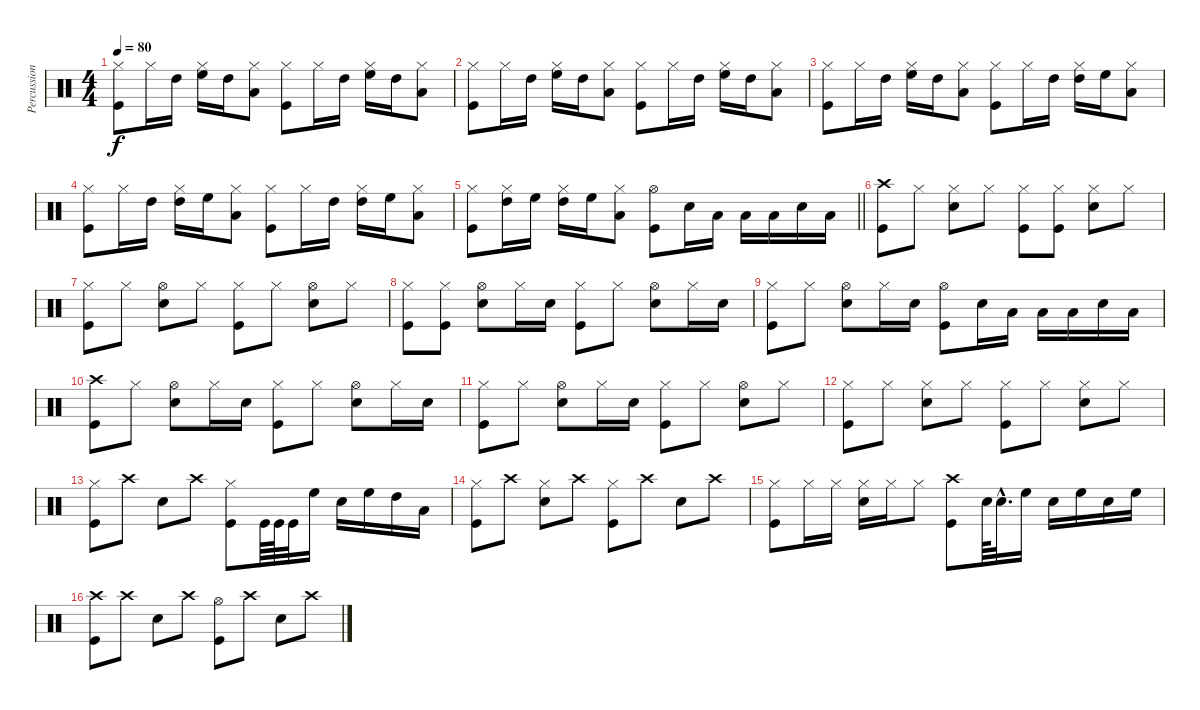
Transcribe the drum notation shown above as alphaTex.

\track ("Percussion" "Percussion") {instrument percussion}
\staff {score}
\articulation defaults
\ts (4 4)
\tempo 80
\clef neutral
\ks c
("Hi-Hat (closed)" "Kick (hit)").8{dy f} "Hi-Hat (closed)".16 "High Tom (hit)".16 ("Hi-Hat (closed)" "High Floor Tom (hit)").16 "High Tom (hit)".16 ("Hi-Hat (closed)" "Low Tom (hit)").8 ("Hi-Hat (closed)" "Kick (hit)").8 "Hi-Hat (closed)".16 "High Tom (hit)".16 ("Hi-Hat (closed)" "High Floor Tom (hit)").16 "High Tom (hit)".16 ("Hi-Hat (closed)" "Low Tom (hit)").8 |
("Hi-Hat (closed)" "Kick (hit)").8 "Hi-Hat (closed)".16 "High Tom (hit)".16 ("Hi-Hat (closed)" "High Floor Tom (hit)").16 "High Tom (hit)".16 ("Hi-Hat (closed)" "Low Tom (hit)").8 ("Hi-Hat (closed)" "Kick (hit)").8 "Hi-Hat (closed)".16 "High Tom (hit)".16 ("Hi-Hat (closed)" "High Floor Tom (hit)").16 "High Tom (hit)".16 ("Hi-Hat (closed)" "Low Tom (hit)").8 |
("Hi-Hat (closed)" "Kick (hit)").8 "Hi-Hat (closed)".16 "High Tom (hit)".16 ("Hi-Hat (closed)" "High Floor Tom (hit)").16 "High Tom (hit)".16 ("Hi-Hat (closed)" "Low Tom (hit)").8 ("Hi-Hat (closed)" "Kick (hit)").8 "Hi-Hat (closed)".16 "High Tom (hit)".16 ("Hi-Hat (closed)" "High Tom (hit)").16 "High Floor Tom (hit)".16 ("Hi-Hat (closed)" "Low Tom (hit)").8 |
("Hi-Hat (closed)" "Kick (hit)").8 "Hi-Hat (closed)".16 "High Tom (hit)".16 ("Hi-Hat (closed)" "High Tom (hit)").16 "High Floor Tom (hit)".16 ("Hi-Hat (closed)" "Low Tom (hit)").8 ("Hi-Hat (closed)" "Kick (hit)").8 "Hi-Hat (closed)".16 "High Tom (hit)".16 ("Hi-Hat (closed)" "High Tom (hit)").16 "High Floor Tom (hit)".16 ("Hi-Hat (closed)" "Low Tom (hit)").8 |
\barLineRight lightlight
("Hi-Hat (closed)" "Kick (hit)").8 ("Hi-Hat (closed)" "High Tom (hit)").16 "High Floor Tom (hit)".16 ("Hi-Hat (closed)" "High Tom (hit)").16 "High Floor Tom (hit)".16 ("Hi-Hat (closed)" "Low Tom (hit)").8 ("Hi-Hat (open)" "Kick (hit)").8 "Snare (hit) 2".16 "Low Tom (hit)".16 "Low Tom (hit)".16 "Low Tom (hit)".16 "Snare (hit) 2".16 "Low Tom (hit)".16 |
("Crash high (hit)" "Kick (hit)").8 "Hi-Hat (closed)".8 ("Hi-Hat (closed)" "Snare (hit) 2").8 "Hi-Hat (closed)".8 ("Hi-Hat (closed)" "Kick (hit)").8 ("Hi-Hat (closed)" "Kick (hit)").8 ("Hi-Hat (closed)" "Snare (hit) 2").8 "Hi-Hat (closed)".8 |
("Hi-Hat (closed)" "Kick (hit)").8 "Hi-Hat (closed)".8 ("Hi-Hat (open)" "Snare (hit) 2").8 "Hi-Hat (closed)".8 ("Hi-Hat (closed)" "Kick (hit)").8 "Hi-Hat (closed)".8 ("Hi-Hat (open)" "Snare (hit) 2").8 "Hi-Hat (closed)".8 |
("Hi-Hat (closed)" "Kick (hit)").8 ("Hi-Hat (closed)" "Kick (hit)").8 ("Hi-Hat (open)" "Snare (hit) 2").8 "Hi-Hat (closed)".16 "Snare (hit) 2".16 ("Hi-Hat (closed)" "Kick (hit)").8 "Hi-Hat (closed)".8 ("Hi-Hat (open)" "Snare (hit) 2").8 "Hi-Hat (closed)".16 "Snare (hit) 2".16 |
("Hi-Hat (closed)" "Kick (hit)").8 "Hi-Hat (closed)".8 ("Hi-Hat (open)" "Snare (hit) 2").8 "Hi-Hat (closed)".16 "Snare (hit) 2".16 ("Hi-Hat (open)" "Kick (hit)").8 "Snare (hit) 2".16 "Low Tom (hit)".16 "Low Tom (hit)".16 "Low Tom (hit)".16 "Snare (hit) 2".16 "Low Tom (hit)".16 |
("Crash high (hit)" "Kick (hit)").8 "Hi-Hat (closed)".8 ("Hi-Hat (open)" "Snare (hit) 2").8 "Hi-Hat (closed)".16 "Snare (hit) 2".16 ("Hi-Hat (closed)" "Kick (hit)").8 "Hi-Hat (closed)".8 ("Hi-Hat (open)" "Snare (hit) 2").8 "Hi-Hat (closed)".16 "Snare (hit) 2".16 |
("Hi-Hat (closed)" "Kick (hit)").8 "Hi-Hat (closed)".8 ("Hi-Hat (open)" "Snare (hit) 2").8 "Hi-Hat (closed)".16 "Snare (hit) 2".16 ("Hi-Hat (closed)" "Kick (hit)").8 "Hi-Hat (closed)".8 ("Hi-Hat (open)" "Snare (hit) 2").8 "Hi-Hat (closed)".8 |
("Hi-Hat (closed)" "Kick (hit)").8 "Hi-Hat (closed)".8 ("Hi-Hat (closed)" "Snare (hit) 2").8 "Hi-Hat (closed)".8 ("Hi-Hat (closed)" "Kick (hit)").8 "Hi-Hat (closed)".8 ("Hi-Hat (closed)" "Snare (hit) 2").8 "Hi-Hat (closed)".8 |
("Hi-Hat (closed)" "Kick (hit)").8 "Crash high (hit)".8 "Snare (hit) 2".8 "Crash high (hit)".8 ("Hi-Hat (closed)" "Kick (hit)").8 "Kick (hit)".64 "Kick (hit)".64 "Kick (hit)".32 "High Floor Tom (hit)".16 "Snare (hit) 2".16 "High Floor Tom (hit)".16 "High Tom (hit)".16 "Low Tom (hit)".16 |
("Hi-Hat (closed)" "Kick (hit)").8 "Crash high (hit)".8 ("Hi-Hat (closed)" "Snare (hit) 2").8 "Crash high (hit)".8 ("Hi-Hat (closed)" "Kick (hit)").8 "Crash high (hit)".8 "Snare (hit) 2".8 "Crash high (hit)".8 |
("Hi-Hat (closed)" "Kick (hit)").8 "Hi-Hat (closed)".16 "Hi-Hat (closed)".16 ("Hi-Hat (closed)" "Snare (hit) 2").16 "Hi-Hat (closed)".16 "Hi-Hat (closed)".8 ("Crash high (hit)" "Kick (hit)").8 "Snare (hit) 2".64 "Snare (hit) 2"{hac}.32{d} "High Floor Tom (hit)".16 "Snare (hit) 2".16 "High Floor Tom (hit)".16 "Snare (hit) 2".16 "High Floor Tom (hit)".16 |
("Crash high (hit)" "Kick (hit)").8 "Crash high (hit)".8 "Snare (hit) 2".8 "Crash high (hit)".8 ("Hi-Hat (open)" "Kick (hit)").8 "Crash high (hit)".8 "Snare (hit) 2".8 "Crash high (hit)".8
